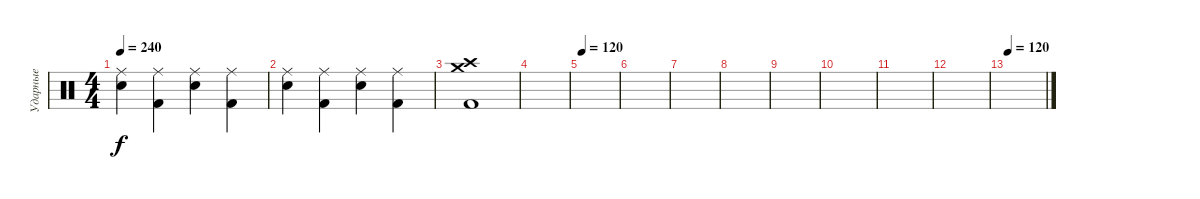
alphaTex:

\track ("Ударные" "Ударные") {instrument percussion}
\staff {score}
\articulation defaults
\ts (4 4)
\tempo 240
\clef neutral
\ks c
("Electric Snare (hit)" "Ride (middle)").4{dy f} ("Kick (hit) 2" "Ride (middle)").4 ("Electric Snare (hit)" "Ride (middle)").4 ("Kick (hit) 2" "Ride (middle)").4 |
("Electric Snare (hit)" "Ride (middle)").4 ("Kick (hit) 2" "Ride (middle)").4 ("Electric Snare (hit)" "Ride (middle)").4 ("Kick (hit) 2" "Ride (middle)").4 |
("Kick (hit) 2" "Crash high (hit)" "Crash medium (hit)").1 |
|
\tempo 120
|
|
|
|
|
|
|
|
\tempo 120
